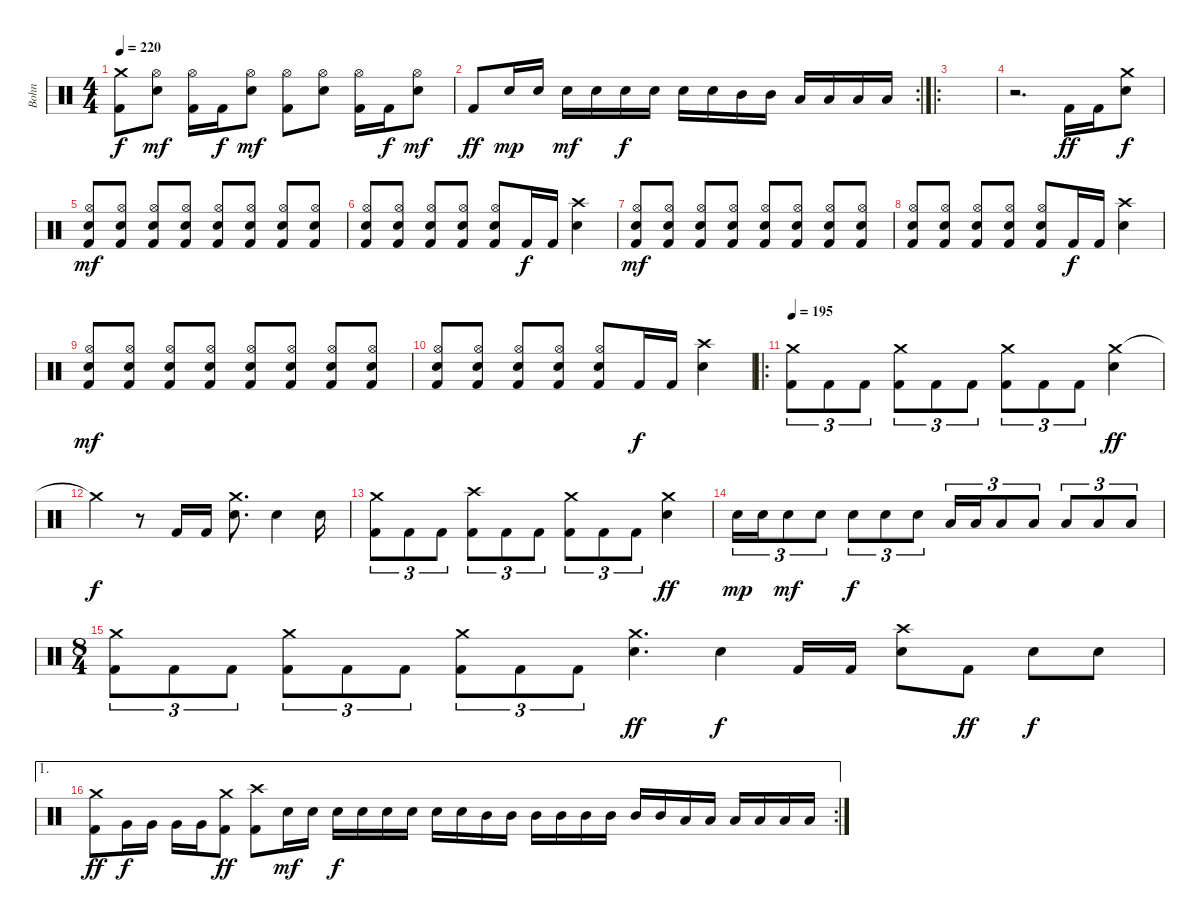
\track ("Bohn" "Bohn") {instrument percussion}
\staff {score}
\articulation defaults
\ts (4 4)
\tempo 220
\clef neutral
\ks c
("Crash medium (hit)" "Kick (hit) 2").8{dy f} ("Hi-Hat (open)" "Electric Snare (hit)").8{dy mf} ("Hi-Hat (open)" "Kick (hit) 2").16 "Kick (hit) 2".16{dy f} ("Hi-Hat (open)" "Electric Snare (hit)").8{dy mf} ("Hi-Hat (open)" "Kick (hit) 2").8 ("Hi-Hat (open)" "Electric Snare (hit)").8 ("Hi-Hat (open)" "Kick (hit) 2").16 "Kick (hit) 2".16{dy f} ("Hi-Hat (open)" "Electric Snare (hit)").8{dy mf} |
\rc 2 "Kick (hit) 2".8{dy ff} "Electric Snare (hit)".16{dy mp} "Electric Snare (hit)".16 "Electric Snare (hit)".16{dy mf} "Electric Snare (hit)".16 "Electric Snare (hit)".16{dy f} "Electric Snare (hit)".16 "Electric Snare (hit)".16 "Electric Snare (hit)".16 "Mid Tom (hit)".16 "Mid Tom (hit)".16 "Low Tom (hit)".16 "Low Tom (hit)".16 "Low Tom (hit)".16 "Low Tom (hit)".16
|
\ro
|
r.2{d} "Kick (hit) 2".16{dy ff} "Kick (hit) 2".16 ("Crash medium (hit)" "Electric Snare (hit)").8{dy f} |
("Hi-Hat (open)" "Electric Snare (hit)" "Kick (hit) 2").8{dy mf} ("Hi-Hat (open)" "Electric Snare (hit)" "Kick (hit) 2").8 ("Hi-Hat (open)" "Electric Snare (hit)" "Kick (hit) 2").8 ("Hi-Hat (open)" "Electric Snare (hit)" "Kick (hit) 2").8 ("Hi-Hat (open)" "Electric Snare (hit)" "Kick (hit) 2").8 ("Hi-Hat (open)" "Electric Snare (hit)" "Kick (hit) 2").8 ("Hi-Hat (open)" "Electric Snare (hit)" "Kick (hit) 2").8 ("Hi-Hat (open)" "Electric Snare (hit)" "Kick (hit) 2").8 |
("Hi-Hat (open)" "Electric Snare (hit)" "Kick (hit) 2").8 ("Hi-Hat (open)" "Electric Snare (hit)" "Kick (hit) 2").8 ("Hi-Hat (open)" "Electric Snare (hit)" "Kick (hit) 2").8 ("Hi-Hat (open)" "Electric Snare (hit)" "Kick (hit) 2").8 ("Hi-Hat (open)" "Electric Snare (hit)" "Kick (hit) 2").8 "Kick (hit) 2".16{dy f} "Kick (hit) 2".16 ("Crash high (hit)" "Electric Snare (hit)").4 |
("Hi-Hat (open)" "Electric Snare (hit)" "Kick (hit) 2").8{dy mf} ("Hi-Hat (open)" "Electric Snare (hit)" "Kick (hit) 2").8 ("Hi-Hat (open)" "Electric Snare (hit)" "Kick (hit) 2").8 ("Hi-Hat (open)" "Electric Snare (hit)" "Kick (hit) 2").8 ("Hi-Hat (open)" "Electric Snare (hit)" "Kick (hit) 2").8 ("Hi-Hat (open)" "Electric Snare (hit)" "Kick (hit) 2").8 ("Hi-Hat (open)" "Electric Snare (hit)" "Kick (hit) 2").8 ("Hi-Hat (open)" "Electric Snare (hit)" "Kick (hit) 2").8 |
("Hi-Hat (open)" "Electric Snare (hit)" "Kick (hit) 2").8 ("Hi-Hat (open)" "Electric Snare (hit)" "Kick (hit) 2").8 ("Hi-Hat (open)" "Electric Snare (hit)" "Kick (hit) 2").8 ("Hi-Hat (open)" "Electric Snare (hit)" "Kick (hit) 2").8 ("Hi-Hat (open)" "Electric Snare (hit)" "Kick (hit) 2").8 "Kick (hit) 2".16{dy f} "Kick (hit) 2".16 ("Crash high (hit)" "Electric Snare (hit)").4 |
("Hi-Hat (open)" "Electric Snare (hit)" "Kick (hit) 2").8{dy mf} ("Hi-Hat (open)" "Electric Snare (hit)" "Kick (hit) 2").8 ("Hi-Hat (open)" "Electric Snare (hit)" "Kick (hit) 2").8 ("Hi-Hat (open)" "Electric Snare (hit)" "Kick (hit) 2").8 ("Hi-Hat (open)" "Electric Snare (hit)" "Kick (hit) 2").8 ("Hi-Hat (open)" "Electric Snare (hit)" "Kick (hit) 2").8 ("Hi-Hat (open)" "Electric Snare (hit)" "Kick (hit) 2").8 ("Hi-Hat (open)" "Electric Snare (hit)" "Kick (hit) 2").8 |
("Hi-Hat (open)" "Electric Snare (hit)" "Kick (hit) 2").8 ("Hi-Hat (open)" "Electric Snare (hit)" "Kick (hit) 2").8 ("Hi-Hat (open)" "Electric Snare (hit)" "Kick (hit) 2").8 ("Hi-Hat (open)" "Electric Snare (hit)" "Kick (hit) 2").8 ("Hi-Hat (open)" "Electric Snare (hit)" "Kick (hit) 2").8 "Kick (hit) 2".16{dy f} "Kick (hit) 2".16 ("Crash high (hit)" "Electric Snare (hit)").4 |
\ro
\tempo 195
("Crash medium (hit)" "Kick (hit) 2").8{tu (3 2)} "Kick (hit) 2".8{tu (3 2)} "Kick (hit) 2".8{tu (3 2)} ("Crash medium (hit)" "Kick (hit) 2").8{tu (3 2)} "Kick (hit) 2".8{tu (3 2)} "Kick (hit) 2".8{tu (3 2)} ("Crash medium (hit)" "Kick (hit) 2").8{tu (3 2)} "Kick (hit) 2".8{tu (3 2)} "Kick (hit) 2".8{tu (3 2)} ("Crash medium (hit)" "Electric Snare (hit)").4{dy ff} |
"Crash medium (hit)"{t}.4{dy f} r.8 "Kick (hit) 2".16 "Kick (hit) 2".16 ("Crash medium (hit)" "Electric Snare (hit)").8{d} "Electric Snare (hit)".4 "Electric Snare (hit)".16 |
("Crash medium (hit)" "Kick (hit) 2").8{tu (3 2)} "Kick (hit) 2".8{tu (3 2)} "Kick (hit) 2".8{tu (3 2)} ("Crash high (hit)" "Kick (hit) 2").8{tu (3 2)} "Kick (hit) 2".8{tu (3 2)} "Kick (hit) 2".8{tu (3 2)} ("Crash medium (hit)" "Kick (hit) 2").8{tu (3 2)} "Kick (hit) 2".8{tu (3 2)} "Kick (hit) 2".8{tu (3 2)} ("Crash medium (hit)" "Electric Snare (hit)").4{dy ff} |
"Electric Snare (hit)".16{tu (3 2) dy mp} "Electric Snare (hit)".16{tu (3 2)} "Electric Snare (hit)".8{tu (3 2) dy mf} "Electric Snare (hit)".8{tu (3 2)} "Electric Snare (hit)".8{tu (3 2) dy f} "Electric Snare (hit)".8{tu (3 2)} "Electric Snare (hit)".8{tu (3 2)} "Low Tom (hit)".16{tu (3 2)} "Low Tom (hit)".16{tu (3 2)} "Low Tom (hit)".8{tu (3 2)} "Low Tom (hit)".8{tu (3 2)} "Low Tom (hit)".8{tu (3 2)} "Low Tom (hit)".8{tu (3 2)} "Low Tom (hit)".8{tu (3 2)} |
\ts (8 4)
("Crash medium (hit)" "Kick (hit) 2").8{tu (3 2)} "Kick (hit) 2".8{tu (3 2)} "Kick (hit) 2".8{tu (3 2)} ("Crash medium (hit)" "Kick (hit) 2").8{tu (3 2)} "Kick (hit) 2".8{tu (3 2)} "Kick (hit) 2".8{tu (3 2)} ("Crash medium (hit)" "Kick (hit) 2").8{tu (3 2)} "Kick (hit) 2".8{tu (3 2)} "Kick (hit) 2".8{tu (3 2)} ("Crash medium (hit)" "Electric Snare (hit)").4{d dy ff} "Electric Snare (hit)".4{dy f} "Kick (hit) 2".16 "Kick (hit) 2".16 ("Crash high (hit)" "Electric Snare (hit)").8 "Kick (hit) 2".8{dy ff} "Electric Snare (hit)".8{dy f} "Electric Snare (hit)".8 |
\ae 1
\rc 2
("Crash medium (hit)" "Kick (hit) 2").8{dy ff} "Very Low Tom (hit)".16{dy f} "Very Low Tom (hit)".16 "Very Low Tom (hit)".16 "Very Low Tom (hit)".16 ("Crash medium (hit)" "Kick (hit) 2").8{dy ff} ("Crash high (hit)" "Kick (hit) 2").8 "Electric Snare (hit)".16{dy mf} "Electric Snare (hit)".16 "Electric Snare (hit)".16{dy f} "Electric Snare (hit)".16 "Electric Snare (hit)".16 "Electric Snare (hit)".16 "Electric Snare (hit)".16 "Electric Snare (hit)".16 "Mid Tom (hit)".16 "Mid Tom (hit)".16 "Mid Tom (hit)".16 "Mid Tom (hit)".16 "Mid Tom (hit)".16 "Mid Tom (hit)".16 "Mid Tom (hit)".16 "Mid Tom (hit)".16 "Low Tom (hit)".16 "Low Tom (hit)".16 "Low Tom (hit)".16 "Low Tom (hit)".16 "Low Tom (hit)".16 "Low Tom (hit)".16
